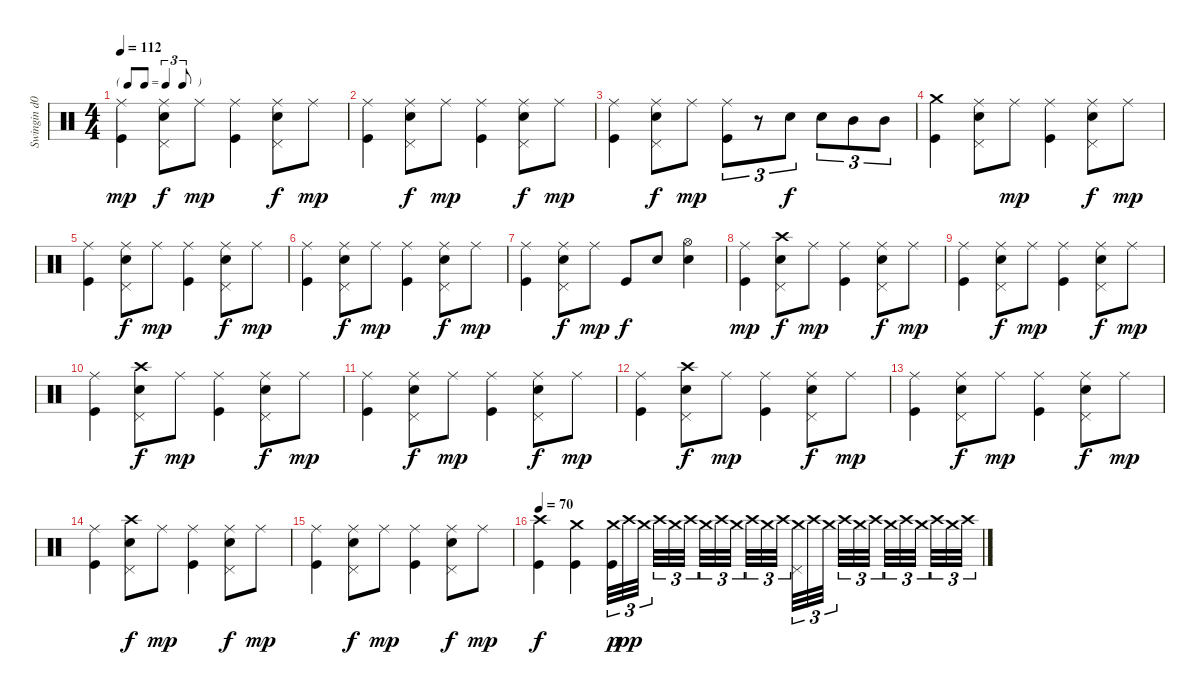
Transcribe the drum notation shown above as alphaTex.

\track ("Swingin d00d" "Swingin d0") {instrument percussion}
\staff {score}
\articulation defaults
\ts (4 4)
\tf triplet8th
\tempo 112
\clef neutral
\ks c
("Ride (middle)" "Kick (hit)").4{dy mp} ("Ride (middle)" "Pedal Hi-Hat (hit)" "Electric Snare (hit)").8{dy f} "Ride (middle)".8{dy mp} ("Ride (middle)" "Kick (hit)").4 ("Ride (middle)" "Pedal Hi-Hat (hit)" "Electric Snare (hit)").8{dy f} "Ride (middle)".8{dy mp} |
("Ride (middle)" "Kick (hit)").4 ("Ride (middle)" "Pedal Hi-Hat (hit)" "Electric Snare (hit)").8{dy f} "Ride (middle)".8{dy mp} ("Ride (middle)" "Kick (hit)").4 ("Ride (middle)" "Pedal Hi-Hat (hit)" "Electric Snare (hit)").8{dy f} "Ride (middle)".8{dy mp} |
("Ride (middle)" "Kick (hit)").4 ("Ride (middle)" "Pedal Hi-Hat (hit)" "Electric Snare (hit)").8{dy f} "Ride (middle)".8{dy mp} ("Ride (middle)" "Kick (hit)").8{tu (3 2)} r.8{tu (3 2)} "Electric Snare (hit)".8{tu (3 2) dy f} "Electric Snare (hit)".8{tu (3 2)} "Mid Tom (hit)".8{tu (3 2)} "Mid Tom (hit)".8{tu (3 2)} |
("Crash medium (hit)" "Kick (hit)").4 ("Ride (middle)" "Pedal Hi-Hat (hit)" "Electric Snare (hit)").8 "Ride (middle)".8{dy mp} ("Ride (middle)" "Kick (hit)").4 ("Ride (middle)" "Pedal Hi-Hat (hit)" "Electric Snare (hit)").8{dy f} "Ride (middle)".8{dy mp} |
("Ride (middle)" "Kick (hit)").4 ("Ride (middle)" "Pedal Hi-Hat (hit)" "Electric Snare (hit)").8{dy f} "Ride (middle)".8{dy mp} ("Ride (middle)" "Kick (hit)").4 ("Ride (middle)" "Pedal Hi-Hat (hit)" "Electric Snare (hit)").8{dy f} "Ride (middle)".8{dy mp} |
("Ride (middle)" "Kick (hit)").4 ("Ride (middle)" "Pedal Hi-Hat (hit)" "Electric Snare (hit)").8{dy f} "Ride (middle)".8{dy mp} ("Ride (middle)" "Kick (hit)").4 ("Ride (middle)" "Pedal Hi-Hat (hit)" "Electric Snare (hit)").8{dy f} "Ride (middle)".8{dy mp} |
("Ride (middle)" "Kick (hit)").4 ("Ride (middle)" "Pedal Hi-Hat (hit)" "Electric Snare (hit)").8{dy f} "Ride (middle)".8{dy mp} "Kick (hit)".8{dy f} "Electric Snare (hit)".8 ("Hi-Hat (open)" "Electric Snare (hit)").4 |
("Ride (middle)" "Kick (hit)").4{dy mp} ("Crash high (hit)" "Pedal Hi-Hat (hit)" "Electric Snare (hit)").8{dy f} "Ride (middle)".8{dy mp} ("Ride (middle)" "Kick (hit)").4 ("Ride (middle)" "Pedal Hi-Hat (hit)" "Electric Snare (hit)").8{dy f} "Ride (middle)".8{dy mp} |
("Ride (middle)" "Kick (hit)").4 ("Ride (middle)" "Pedal Hi-Hat (hit)" "Electric Snare (hit)").8{dy f} "Ride (middle)".8{dy mp} ("Ride (middle)" "Kick (hit)").4 ("Ride (middle)" "Pedal Hi-Hat (hit)" "Electric Snare (hit)").8{dy f} "Ride (middle)".8{dy mp} |
("Ride (middle)" "Kick (hit)").4 ("Crash high (hit)" "Pedal Hi-Hat (hit)" "Electric Snare (hit)").8{dy f} "Ride (middle)".8{dy mp} ("Ride (middle)" "Kick (hit)").4 ("Ride (middle)" "Pedal Hi-Hat (hit)" "Electric Snare (hit)").8{dy f} "Ride (middle)".8{dy mp} |
("Ride (middle)" "Kick (hit)").4 ("Ride (middle)" "Pedal Hi-Hat (hit)" "Electric Snare (hit)").8{dy f} "Ride (middle)".8{dy mp} ("Ride (middle)" "Kick (hit)").4 ("Ride (middle)" "Pedal Hi-Hat (hit)" "Electric Snare (hit)").8{dy f} "Ride (middle)".8{dy mp} |
("Ride (middle)" "Kick (hit)").4 ("Crash high (hit)" "Pedal Hi-Hat (hit)" "Electric Snare (hit)").8{dy f} "Ride (middle)".8{dy mp} ("Ride (middle)" "Kick (hit)").4 ("Ride (middle)" "Pedal Hi-Hat (hit)" "Electric Snare (hit)").8{dy f} "Ride (middle)".8{dy mp} |
("Ride (middle)" "Kick (hit)").4 ("Ride (middle)" "Pedal Hi-Hat (hit)" "Electric Snare (hit)").8{dy f} "Ride (middle)".8{dy mp} ("Ride (middle)" "Kick (hit)").4 ("Ride (middle)" "Pedal Hi-Hat (hit)" "Electric Snare (hit)").8{dy f} "Ride (middle)".8{dy mp} |
("Ride (middle)" "Kick (hit)").4 ("Crash high (hit)" "Pedal Hi-Hat (hit)" "Electric Snare (hit)").8{dy f} "Ride (middle)".8{dy mp} ("Ride (middle)" "Kick (hit)").4 ("Ride (middle)" "Pedal Hi-Hat (hit)" "Electric Snare (hit)").8{dy f} "Ride (middle)".8{dy mp} |
("Ride (middle)" "Kick (hit)").4 ("Ride (middle)" "Pedal Hi-Hat (hit)" "Electric Snare (hit)").8{dy f} "Ride (middle)".8{dy mp} ("Ride (middle)" "Kick (hit)").4 ("Ride (middle)" "Pedal Hi-Hat (hit)" "Electric Snare (hit)").8{dy f} "Ride (middle)".8{dy mp} |
\tempo 70
("Crash high (hit)" "Kick (hit)").4{dy f} ("Crash medium (hit)" "Kick (hit)").4 ("Crash medium (hit)" "Kick (hit)").32{tu (3 2) dy p} "Crash high (hit)".32{tu (3 2) dy pp} "Crash medium (hit)".32{tu (3 2)} "Crash high (hit)".32{tu (3 2)} "Crash medium (hit)".32{tu (3 2)} "Crash high (hit)".32{tu (3 2)} "Crash medium (hit)".32{tu (3 2)} "Crash high (hit)".32{tu (3 2)} "Crash medium (hit)".32{tu (3 2)} "Crash high (hit)".32{tu (3 2)} "Crash medium (hit)".32{tu (3 2)} "Crash high (hit)".32{tu (3 2)} ("Pedal Hi-Hat (hit)" "Crash medium (hit)").32{tu (3 2)} "Crash high (hit)".32{tu (3 2)} "Crash medium (hit)".32{tu (3 2)} "Crash high (hit)".32{tu (3 2)} "Crash medium (hit)".32{tu (3 2)} "Crash high (hit)".32{tu (3 2)} "Crash medium (hit)".32{tu (3 2)} "Crash high (hit)".32{tu (3 2)} "Crash medium (hit)".32{tu (3 2)} "Crash high (hit)".32{tu (3 2)} "Crash medium (hit)".32{tu (3 2)} "Crash high (hit)".32{tu (3 2)}
